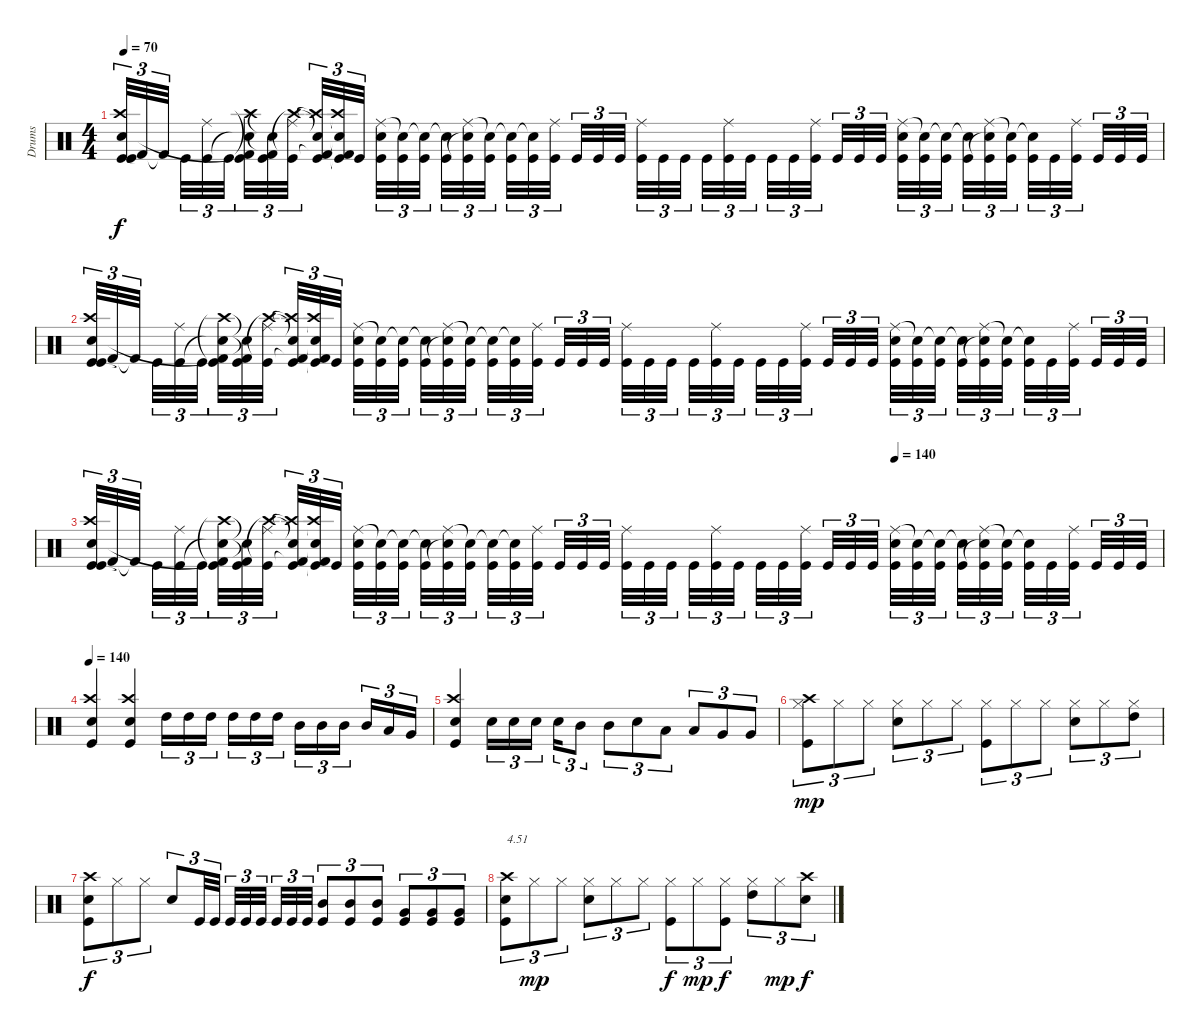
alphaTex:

\track ("Drums" "Drums") {instrument percussion}
\staff {score}
\articulation defaults
\ts (4 4)
\tempo 70
\clef neutral
\ks c
("Kick (hit)" "Crash high (hit)" "Snare (hit) 2" "Kick (hit)").32{tu (3 2) dy f} "Kick (hit) 2"{t}.32{tu (3 2)} "Kick (hit) 2"{t}.32{tu (3 2)} "Kick (hit)".32{tu (3 2)} ("Ride (middle)" "Kick (hit)").32{tu (3 2)} "Kick (hit)".32{tu (3 2)} ("Crash high (hit)"{t} "Snare (hit) 2"{t} "Kick (hit) 2"{t} "Kick (hit)").32{tu (3 2)} ("Snare (hit) 2"{t} "Kick (hit) 2"{t} "Kick (hit)").32{tu (3 2)} ("Ride (middle)" "Crash high (hit)"{t} "Kick (hit)").32{tu (3 2)} ("Crash high (hit)"{t} "Snare (hit) 2"{t} "Kick (hit) 2"{t} "Kick (hit)").32{tu (3 2)} ("Crash high (hit)"{t} "Snare (hit) 2"{t} "Kick (hit) 2"{t} "Kick (hit)").32{tu (3 2)} "Kick (hit)".32{tu (3 2)} ("Ride (middle)" "Snare (hit) 2" "Kick (hit)").32{tu (3 2)} ("Snare (hit)"{t} "Kick (hit)").32{tu (3 2)} ("Snare (hit)"{t} "Kick (hit)").32{tu (3 2)} ("Snare (hit)"{t} "Kick (hit)").32{tu (3 2)} ("Ride (middle)" "Snare (hit)"{t} "Kick (hit)").32{tu (3 2)} ("Snare (hit)"{t} "Kick (hit)").32{tu (3 2)} ("Snare (hit)"{t} "Kick (hit)").32{tu (3 2)} ("Snare (hit)"{t} "Kick (hit)").32{tu (3 2)} ("Ride (middle)" "Kick (hit)").32{tu (3 2)} "Kick (hit)".32{tu (3 2)} "Kick (hit)".32{tu (3 2)} "Kick (hit)".32{tu (3 2)} ("Ride (middle)" "Kick (hit)").32{tu (3 2)} "Kick (hit)".32{tu (3 2)} "Kick (hit)".32{tu (3 2)} "Kick (hit)".32{tu (3 2)} ("Ride (middle)" "Kick (hit)").32{tu (3 2)} "Kick (hit)".32{tu (3 2)} "Kick (hit)".32{tu (3 2)} "Kick (hit)".32{tu (3 2)} ("Ride (middle)" "Kick (hit)").32{tu (3 2)} "Kick (hit)".32{tu (3 2)} "Kick (hit)".32{tu (3 2)} "Kick (hit)".32{tu (3 2)} ("Ride (middle)" "Snare (hit) 2" "Kick (hit)").32{tu (3 2)} ("Snare (hit)"{t} "Kick (hit)").32{tu (3 2)} ("Snare (hit)"{t} "Kick (hit)").32{tu (3 2)} ("Snare (hit)"{t} "Kick (hit)").32{tu (3 2)} ("Ride (middle)" "Snare (hit)"{t} "Kick (hit)").32{tu (3 2)} ("Snare (hit)"{t} "Kick (hit)").32{tu (3 2)} ("Snare (hit)"{t} "Kick (hit)").32{tu (3 2)} "Kick (hit)".32{tu (3 2)} ("Ride (middle)" "Kick (hit)").32{tu (3 2)} "Kick (hit)".32{tu (3 2)} "Kick (hit)".32{tu (3 2)} "Kick (hit)".32{tu (3 2)} |
("Kick (hit)" "Crash high (hit)" "Snare (hit) 2" "Kick (hit)").32{tu (3 2)} "Kick (hit) 2"{t}.32{tu (3 2)} "Kick (hit) 2"{t}.32{tu (3 2)} "Kick (hit)".32{tu (3 2)} ("Ride (middle)" "Kick (hit)").32{tu (3 2)} "Kick (hit)".32{tu (3 2)} ("Crash high (hit)"{t} "Snare (hit) 2"{t} "Kick (hit) 2"{t} "Kick (hit)").32{tu (3 2)} ("Snare (hit) 2"{t} "Kick (hit) 2"{t} "Kick (hit)").32{tu (3 2)} ("Ride (middle)" "Crash high (hit)"{t} "Kick (hit)").32{tu (3 2)} ("Crash high (hit)"{t} "Snare (hit) 2"{t} "Kick (hit) 2"{t} "Kick (hit)").32{tu (3 2)} ("Crash high (hit)"{t} "Snare (hit) 2"{t} "Kick (hit) 2"{t} "Kick (hit)").32{tu (3 2)} "Kick (hit)".32{tu (3 2)} ("Ride (middle)" "Snare (hit) 2" "Kick (hit)").32{tu (3 2)} ("Snare (hit)"{t} "Kick (hit)").32{tu (3 2)} ("Snare (hit)"{t} "Kick (hit)").32{tu (3 2)} ("Snare (hit)"{t} "Kick (hit)").32{tu (3 2)} ("Ride (middle)" "Snare (hit)"{t} "Kick (hit)").32{tu (3 2)} ("Snare (hit)"{t} "Kick (hit)").32{tu (3 2)} ("Snare (hit)"{t} "Kick (hit)").32{tu (3 2)} ("Snare (hit)"{t} "Kick (hit)").32{tu (3 2)} ("Ride (middle)" "Kick (hit)").32{tu (3 2)} "Kick (hit)".32{tu (3 2)} "Kick (hit)".32{tu (3 2)} "Kick (hit)".32{tu (3 2)} ("Ride (middle)" "Kick (hit)").32{tu (3 2)} "Kick (hit)".32{tu (3 2)} "Kick (hit)".32{tu (3 2)} "Kick (hit)".32{tu (3 2)} ("Ride (middle)" "Kick (hit)").32{tu (3 2)} "Kick (hit)".32{tu (3 2)} "Kick (hit)".32{tu (3 2)} "Kick (hit)".32{tu (3 2)} ("Ride (middle)" "Kick (hit)").32{tu (3 2)} "Kick (hit)".32{tu (3 2)} "Kick (hit)".32{tu (3 2)} "Kick (hit)".32{tu (3 2)} ("Ride (middle)" "Snare (hit) 2" "Kick (hit)").32{tu (3 2)} ("Snare (hit)"{t} "Kick (hit)").32{tu (3 2)} ("Snare (hit)"{t} "Kick (hit)").32{tu (3 2)} ("Snare (hit)"{t} "Kick (hit)").32{tu (3 2)} ("Ride (middle)" "Snare (hit)"{t} "Kick (hit)").32{tu (3 2)} ("Snare (hit)"{t} "Kick (hit)").32{tu (3 2)} ("Snare (hit)"{t} "Kick (hit)").32{tu (3 2)} "Kick (hit)".32{tu (3 2)} ("Ride (middle)" "Kick (hit)").32{tu (3 2)} "Kick (hit)".32{tu (3 2)} "Kick (hit)".32{tu (3 2)} "Kick (hit)".32{tu (3 2)} |
\tempo (140 0.75)
("Kick (hit)" "Crash high (hit)" "Snare (hit) 2" "Kick (hit)").32{tu (3 2)} "Kick (hit) 2"{t}.32{tu (3 2)} "Kick (hit) 2"{t}.32{tu (3 2)} "Kick (hit)".32{tu (3 2)} ("Ride (middle)" "Kick (hit)").32{tu (3 2)} "Kick (hit)".32{tu (3 2)} ("Crash high (hit)"{t} "Snare (hit) 2"{t} "Kick (hit) 2"{t} "Kick (hit)").32{tu (3 2)} ("Snare (hit) 2"{t} "Kick (hit) 2"{t} "Kick (hit)").32{tu (3 2)} ("Ride (middle)" "Crash high (hit)"{t} "Kick (hit)").32{tu (3 2)} ("Crash high (hit)"{t} "Snare (hit) 2"{t} "Kick (hit) 2"{t} "Kick (hit)").32{tu (3 2)} ("Crash high (hit)"{t} "Snare (hit) 2"{t} "Kick (hit) 2"{t} "Kick (hit)").32{tu (3 2)} "Kick (hit)".32{tu (3 2)} ("Ride (middle)" "Snare (hit) 2" "Kick (hit)").32{tu (3 2)} ("Snare (hit)"{t} "Kick (hit)").32{tu (3 2)} ("Snare (hit)"{t} "Kick (hit)").32{tu (3 2)} ("Snare (hit)"{t} "Kick (hit)").32{tu (3 2)} ("Ride (middle)" "Snare (hit)"{t} "Kick (hit)").32{tu (3 2)} ("Snare (hit)"{t} "Kick (hit)").32{tu (3 2)} ("Snare (hit)"{t} "Kick (hit)").32{tu (3 2)} ("Snare (hit)"{t} "Kick (hit)").32{tu (3 2)} ("Ride (middle)" "Kick (hit)").32{tu (3 2)} "Kick (hit)".32{tu (3 2)} "Kick (hit)".32{tu (3 2)} "Kick (hit)".32{tu (3 2)} ("Ride (middle)" "Kick (hit)").32{tu (3 2)} "Kick (hit)".32{tu (3 2)} "Kick (hit)".32{tu (3 2)} "Kick (hit)".32{tu (3 2)} ("Ride (middle)" "Kick (hit)").32{tu (3 2)} "Kick (hit)".32{tu (3 2)} "Kick (hit)".32{tu (3 2)} "Kick (hit)".32{tu (3 2)} ("Ride (middle)" "Kick (hit)").32{tu (3 2)} "Kick (hit)".32{tu (3 2)} "Kick (hit)".32{tu (3 2)} "Kick (hit)".32{tu (3 2)} ("Ride (middle)" "Snare (hit) 2" "Kick (hit)").32{tu (3 2)} ("Snare (hit)"{t} "Kick (hit)").32{tu (3 2)} ("Snare (hit)"{t} "Kick (hit)").32{tu (3 2)} ("Snare (hit)"{t} "Kick (hit)").32{tu (3 2)} ("Ride (middle)" "Snare (hit)"{t} "Kick (hit)").32{tu (3 2)} ("Snare (hit)"{t} "Kick (hit)").32{tu (3 2)} ("Snare (hit)"{t} "Kick (hit)").32{tu (3 2)} "Kick (hit)".32{tu (3 2)} ("Ride (middle)" "Kick (hit)").32{tu (3 2)} "Kick (hit)".32{tu (3 2)} "Kick (hit)".32{tu (3 2)} "Kick (hit)".32{tu (3 2)} |
\tempo 140
("Crash high (hit)" "Snare (hit) 2" "Kick (hit)").4 ("Crash high (hit)" "Snare (hit) 2" "Kick (hit)").4 "High Tom (hit)".16{tu (3 2)} "High Tom (hit)".16{tu (3 2)} "High Tom (hit)".16{tu (3 2)} "High Tom (hit)".16{tu (3 2)} "High Tom (hit)".16{tu (3 2)} "High Tom (hit)".16{tu (3 2)} "Mid Tom (hit)".16{tu (3 2)} "Mid Tom (hit)".16{tu (3 2)} "Mid Tom (hit)".16{tu (3 2)} "Mid Tom (hit)".16{tu (3 2)} "Low Tom (hit)".16{tu (3 2)} "Very Low Tom (hit)".16{tu (3 2)} |
("Kick (hit)" "Snare (hit) 2" "Crash high (hit)").4 "Snare (hit) 2".16{tu (3 2)} "Snare (hit) 2".16{tu (3 2)} "Snare (hit) 2".16{tu (3 2)} "Snare (hit) 2".16{tu (3 2)} "Mid Tom (hit)".8{tu (3 2)} "Mid Tom (hit)".8{tu (3 2)} "Snare (hit) 2".8{tu (3 2)} "Low Tom (hit)".8{tu (3 2)} "Low Tom (hit)".8{tu (3 2)} "Very Low Tom (hit)".8{tu (3 2)} "Very Low Tom (hit)".8{tu (3 2)} |
("Crash high (hit)" "Hi-Hat (closed)" "Kick (hit)").8{tu (3 2) dy mp} "Hi-Hat (closed)".8{tu (3 2)} "Hi-Hat (closed)".8{tu (3 2)} ("Snare (hit) 2" "Hi-Hat (closed)").8{tu (3 2)} "Hi-Hat (closed)".8{tu (3 2)} "Hi-Hat (closed)".8{tu (3 2)} ("Hi-Hat (closed)" "Kick (hit)").8{tu (3 2)} "Hi-Hat (closed)".8{tu (3 2)} "Hi-Hat (closed)".8{tu (3 2)} ("Snare (hit) 2" "Hi-Hat (closed)").8{tu (3 2)} "Hi-Hat (closed)".8{tu (3 2)} ("Hi-Hat (closed)" "High Tom (hit)").8{tu (3 2)} |
("Snare (hit) 2" "Crash high (hit)" "Kick (hit)").8{tu (3 2) dy f} "Hi-Hat (closed)".8{tu (3 2)} "Hi-Hat (closed)".8{tu (3 2)} "Snare (hit) 2".8{tu (3 2)} "Kick (hit)".32{tu (3 2)} "Kick (hit)".32{tu (3 2)} "Kick (hit)".32{tu (3 2)} "Kick (hit)".32{tu (3 2)} "Kick (hit)".32{tu (3 2)} "Kick (hit)".32{tu (3 2)} "Kick (hit)".32{tu (3 2)} "Kick (hit)".32{tu (3 2)} ("Mid Tom (hit)" "Kick (hit)").8{tu (3 2)} ("Mid Tom (hit)" "Kick (hit)").8{tu (3 2)} ("Mid Tom (hit)" "Kick (hit)").8{tu (3 2)} ("Very Low Tom (hit)" "Kick (hit)").8{tu (3 2)} ("Very Low Tom (hit)" "Kick (hit)").8{tu (3 2)} ("Very Low Tom (hit)" "Kick (hit)").8{tu (3 2)} |
("Snare (hit) 2" "Kick (hit)" "Crash high (hit)").8{tu (3 2) txt "4.51"} "Hi-Hat (closed)".8{tu (3 2) dy mp} "Hi-Hat (closed)".8{tu (3 2)} ("Snare (hit) 2" "Hi-Hat (closed)").8{tu (3 2)} "Hi-Hat (closed)".8{tu (3 2)} "Hi-Hat (closed)".8{tu (3 2)} ("Hi-Hat (closed)" "Kick (hit)").8{tu (3 2) dy f} "Hi-Hat (closed)".8{tu (3 2) dy mp} ("Hi-Hat (closed)" "Kick (hit)").8{tu (3 2) dy f} ("High Tom (hit)" "Hi-Hat (closed)").8{tu (3 2)} "Hi-Hat (closed)".8{tu (3 2) dy mp} ("Crash high (hit)" "Snare (hit) 2").8{tu (3 2) dy f}
